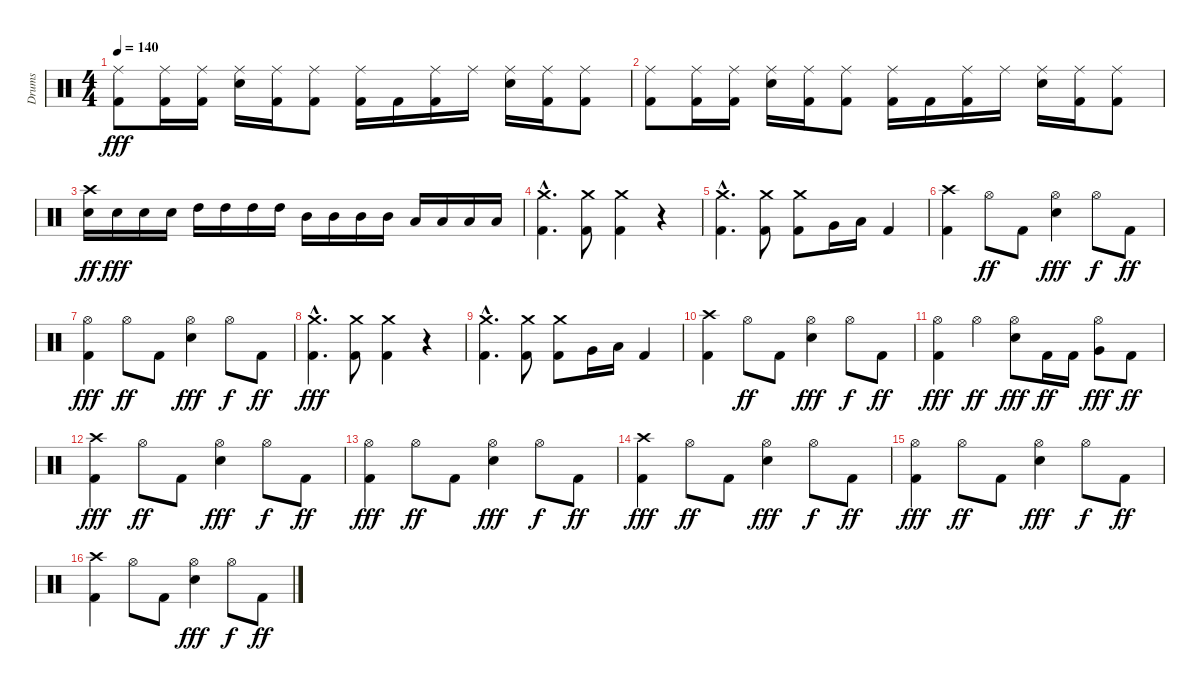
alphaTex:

\track ("Drums" "Drums") {instrument percussion}
\staff {score}
\articulation defaults
\ts (4 4)
\tempo 140
\clef neutral
\ks c
("Ride (middle)" "Kick (hit) 2").8{dy fff} ("Ride (middle)" "Kick (hit) 2").16 ("Ride (middle)" "Kick (hit) 2").16 ("Ride (middle)" "Electric Snare (hit)").16 ("Ride (middle)" "Kick (hit) 2").16 ("Ride (middle)" "Kick (hit) 2").8 ("Ride (middle)" "Kick (hit) 2").16 "Kick (hit) 2".16 ("Ride (middle)" "Kick (hit) 2").16 "Ride (middle)".16 ("Ride (middle)" "Electric Snare (hit)").16 ("Ride (middle)" "Kick (hit) 2").16 ("Ride (middle)" "Kick (hit) 2").8 |
("Ride (middle)" "Kick (hit) 2").8 ("Ride (middle)" "Kick (hit) 2").16 ("Ride (middle)" "Kick (hit) 2").16 ("Ride (middle)" "Electric Snare (hit)").16 ("Ride (middle)" "Kick (hit) 2").16 ("Ride (middle)" "Kick (hit) 2").8 ("Ride (middle)" "Kick (hit) 2").16 "Kick (hit) 2".16 ("Ride (middle)" "Kick (hit) 2").16 "Ride (middle)".16 ("Ride (middle)" "Electric Snare (hit)").16 ("Ride (middle)" "Kick (hit) 2").16 ("Ride (middle)" "Kick (hit) 2").8 |
("Electric Snare (hit)" "Crash high (hit)").16{dy ff} "Electric Snare (hit)".16{dy fff} "Electric Snare (hit)".16 "Electric Snare (hit)".16 "High Tom (hit)".16 "High Tom (hit)".16 "High Tom (hit)".16 "High Tom (hit)".16 "Mid Tom (hit)".16 "Mid Tom (hit)".16 "Mid Tom (hit)".16 "Mid Tom (hit)".16 "Low Tom (hit)".16 "Low Tom (hit)".16 "Low Tom (hit)".16 "Low Tom (hit)".16 |
("Kick (hit) 2" "Crash medium (hit)"{hac}).4{d} ("Kick (hit) 2" "Crash medium (hit)").8 ("Kick (hit) 2" "Crash medium (hit)").4 r.4 |
("Kick (hit) 2" "Crash medium (hit)"{hac}).4{d} ("Kick (hit) 2" "Crash medium (hit)").8 ("Kick (hit) 2" "Crash medium (hit)").8 "Very Low Tom (hit)".16 "Low Floor Tom (hit)".16 "Kick (hit) 2".4 |
("Kick (hit) 2" "Crash high (hit)").4 "Hi-Hat (open)".8{dy ff} "Kick (hit) 2".8 ("Hi-Hat (open)" "Electric Snare (hit)").4{dy fff} "Hi-Hat (open)".8{dy f} "Kick (hit) 2".8{dy ff} |
("Hi-Hat (open)" "Kick (hit) 2").4{dy fff} "Hi-Hat (open)".8{dy ff} "Kick (hit) 2".8 ("Hi-Hat (open)" "Electric Snare (hit)").4{dy fff} "Hi-Hat (open)".8{dy f} "Kick (hit) 2".8{dy ff} |
("Kick (hit) 2" "Crash medium (hit)"{hac}).4{d dy fff} ("Kick (hit) 2" "Crash medium (hit)").8 ("Kick (hit) 2" "Crash medium (hit)").4 r.4 |
("Kick (hit) 2" "Crash medium (hit)"{hac}).4{d} ("Kick (hit) 2" "Crash medium (hit)").8 ("Kick (hit) 2" "Crash medium (hit)").8 "Very Low Tom (hit)".16 "Low Floor Tom (hit)".16 "Kick (hit) 2".4 |
("Kick (hit) 2" "Crash high (hit)").4 "Hi-Hat (open)".8{dy ff} "Kick (hit) 2".8 ("Hi-Hat (open)" "Electric Snare (hit)").4{dy fff} "Hi-Hat (open)".8{dy f} "Kick (hit) 2".8{dy ff} |
("Hi-Hat (open)" "Kick (hit) 2").4{dy fff} "Hi-Hat (open)".4{dy ff} ("Hi-Hat (open)" "Electric Snare (hit)").8{dy fff} "Kick (hit) 2".16{dy ff} "Kick (hit) 2".16 ("Hi-Hat (open)" "Very Low Tom (hit)").8{dy fff} "Kick (hit) 2".8{dy ff} |
("Kick (hit) 2" "Crash high (hit)").4{dy fff} "Hi-Hat (open)".8{dy ff} "Kick (hit) 2".8 ("Hi-Hat (open)" "Electric Snare (hit)").4{dy fff} "Hi-Hat (open)".8{dy f} "Kick (hit) 2".8{dy ff} |
("Hi-Hat (open)" "Kick (hit) 2").4{dy fff} "Hi-Hat (open)".8{dy ff} "Kick (hit) 2".8 ("Hi-Hat (open)" "Electric Snare (hit)").4{dy fff} "Hi-Hat (open)".8{dy f} "Kick (hit) 2".8{dy ff} |
("Kick (hit) 2" "Crash high (hit)").4{dy fff} "Hi-Hat (open)".8{dy ff} "Kick (hit) 2".8 ("Hi-Hat (open)" "Electric Snare (hit)").4{dy fff} "Hi-Hat (open)".8{dy f} "Kick (hit) 2".8{dy ff} |
("Hi-Hat (open)" "Kick (hit) 2").4{dy fff} "Hi-Hat (open)".8{dy ff} "Kick (hit) 2".8 ("Hi-Hat (open)" "Electric Snare (hit)").4{dy fff} "Hi-Hat (open)".8{dy f} "Kick (hit) 2".8{dy ff} |
("Kick (hit) 2" "Crash high (hit)").4 "Hi-Hat (open)".8 "Kick (hit) 2".8 ("Hi-Hat (open)" "Electric Snare (hit)").4{dy fff} "Hi-Hat (open)".8{dy f} "Kick (hit) 2".8{dy ff}
